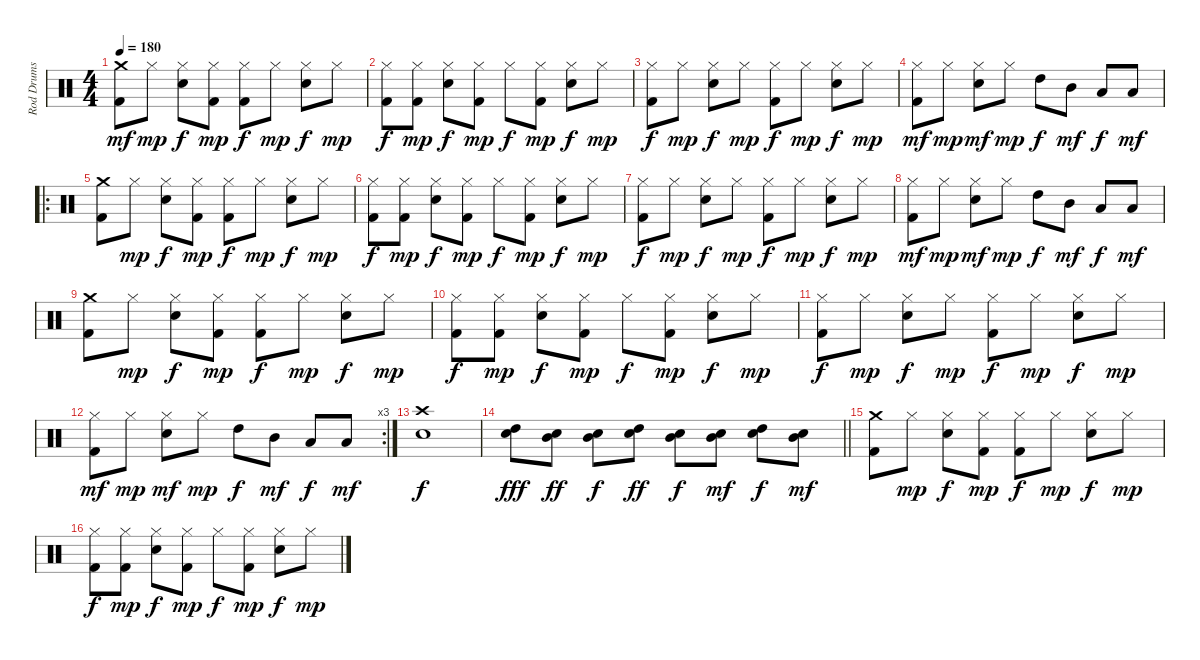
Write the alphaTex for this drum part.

\track ("Rod Drums" "Rod Drums") {instrument percussion}
\staff {score}
\articulation defaults
\ts (4 4)
\tempo 180
\clef neutral
\ks c
("Crash medium (hit)" "Kick (hit) 2").8{dy mf} "Hi-Hat (closed)".8{dy mp} ("Hi-Hat (closed)" "Snare (hit) 2").8{dy f} ("Hi-Hat (closed)" "Kick (hit) 2").8{dy mp} ("Hi-Hat (closed)" "Kick (hit) 2").8{dy f} "Hi-Hat (closed)".8{dy mp} ("Hi-Hat (closed)" "Snare (hit) 2").8{dy f} "Hi-Hat (closed)".8{dy mp} |
("Hi-Hat (closed)" "Kick (hit) 2").8{dy f} ("Hi-Hat (closed)" "Kick (hit) 2").8{dy mp} ("Hi-Hat (closed)" "Snare (hit) 2").8{dy f} ("Hi-Hat (closed)" "Kick (hit) 2").8{dy mp} "Hi-Hat (closed)".8{dy f} ("Hi-Hat (closed)" "Kick (hit) 2").8{dy mp} ("Hi-Hat (closed)" "Snare (hit) 2").8{dy f} "Hi-Hat (closed)".8{dy mp} |
("Hi-Hat (closed)" "Kick (hit) 2").8{dy f} "Hi-Hat (closed)".8{dy mp} ("Hi-Hat (closed)" "Snare (hit) 2").8{dy f} "Hi-Hat (closed)".8{dy mp} ("Hi-Hat (closed)" "Kick (hit) 2").8{dy f} "Hi-Hat (closed)".8{dy mp} ("Hi-Hat (closed)" "Snare (hit) 2").8{dy f} "Hi-Hat (closed)".8{dy mp} |
("Hi-Hat (closed)" "Kick (hit) 2").8{dy mf} "Hi-Hat (closed)".8{dy mp} ("Hi-Hat (closed)" "Snare (hit) 2").8{dy mf} "Hi-Hat (closed)".8{dy mp} "High Tom (hit)".8{dy f} "Mid Tom (hit)".8{dy mf} "Low Tom (hit)".8{dy f} "Low Tom (hit)".8{dy mf} |
\ro
("Crash medium (hit)" "Kick (hit) 2").8 "Hi-Hat (closed)".8{dy mp} ("Hi-Hat (closed)" "Snare (hit) 2").8{dy f} ("Hi-Hat (closed)" "Kick (hit) 2").8{dy mp} ("Hi-Hat (closed)" "Kick (hit) 2").8{dy f} "Hi-Hat (closed)".8{dy mp} ("Hi-Hat (closed)" "Snare (hit) 2").8{dy f} "Hi-Hat (closed)".8{dy mp} |
("Hi-Hat (closed)" "Kick (hit) 2").8{dy f} ("Hi-Hat (closed)" "Kick (hit) 2").8{dy mp} ("Hi-Hat (closed)" "Snare (hit) 2").8{dy f} ("Hi-Hat (closed)" "Kick (hit) 2").8{dy mp} "Hi-Hat (closed)".8{dy f} ("Hi-Hat (closed)" "Kick (hit) 2").8{dy mp} ("Hi-Hat (closed)" "Snare (hit) 2").8{dy f} "Hi-Hat (closed)".8{dy mp} |
("Hi-Hat (closed)" "Kick (hit) 2").8{dy f} "Hi-Hat (closed)".8{dy mp} ("Hi-Hat (closed)" "Snare (hit) 2").8{dy f} "Hi-Hat (closed)".8{dy mp} ("Hi-Hat (closed)" "Kick (hit) 2").8{dy f} "Hi-Hat (closed)".8{dy mp} ("Hi-Hat (closed)" "Snare (hit) 2").8{dy f} "Hi-Hat (closed)".8{dy mp} |
("Hi-Hat (closed)" "Kick (hit) 2").8{dy mf} "Hi-Hat (closed)".8{dy mp} ("Hi-Hat (closed)" "Snare (hit) 2").8{dy mf} "Hi-Hat (closed)".8{dy mp} "High Tom (hit)".8{dy f} "Mid Tom (hit)".8{dy mf} "Low Tom (hit)".8{dy f} "Low Tom (hit)".8{dy mf} |
("Crash medium (hit)" "Kick (hit) 2").8 "Hi-Hat (closed)".8{dy mp} ("Hi-Hat (closed)" "Snare (hit) 2").8{dy f} ("Hi-Hat (closed)" "Kick (hit) 2").8{dy mp} ("Hi-Hat (closed)" "Kick (hit) 2").8{dy f} "Hi-Hat (closed)".8{dy mp} ("Hi-Hat (closed)" "Snare (hit) 2").8{dy f} "Hi-Hat (closed)".8{dy mp} |
("Hi-Hat (closed)" "Kick (hit) 2").8{dy f} ("Hi-Hat (closed)" "Kick (hit) 2").8{dy mp} ("Hi-Hat (closed)" "Snare (hit) 2").8{dy f} ("Hi-Hat (closed)" "Kick (hit) 2").8{dy mp} "Hi-Hat (closed)".8{dy f} ("Hi-Hat (closed)" "Kick (hit) 2").8{dy mp} ("Hi-Hat (closed)" "Snare (hit) 2").8{dy f} "Hi-Hat (closed)".8{dy mp} |
("Hi-Hat (closed)" "Kick (hit) 2").8{dy f} "Hi-Hat (closed)".8{dy mp} ("Hi-Hat (closed)" "Snare (hit) 2").8{dy f} "Hi-Hat (closed)".8{dy mp} ("Hi-Hat (closed)" "Kick (hit) 2").8{dy f} "Hi-Hat (closed)".8{dy mp} ("Hi-Hat (closed)" "Snare (hit) 2").8{dy f} "Hi-Hat (closed)".8{dy mp} |
\rc 3
("Hi-Hat (closed)" "Kick (hit) 2").8{dy mf} "Hi-Hat (closed)".8{dy mp} ("Hi-Hat (closed)" "Snare (hit) 2").8{dy mf} "Hi-Hat (closed)".8{dy mp} "High Tom (hit)".8{dy f} "Mid Tom (hit)".8{dy mf} "Low Tom (hit)".8{dy f} "Low Tom (hit)".8{dy mf} |
("Crash high (hit)" "Snare (hit) 2").1{dy f} |
\barLineRight lightlight
("Snare (hit) 2" "High Tom (hit)").8{dy fff} ("Snare (hit) 2" "Mid Tom (hit)").8{dy ff} ("Snare (hit) 2" "Mid Tom (hit)").8{dy f} ("Snare (hit) 2" "High Tom (hit)").8{dy ff} ("Snare (hit) 2" "Mid Tom (hit)").8{dy f} ("Snare (hit) 2" "Mid Tom (hit)").8{dy mf} ("Snare (hit) 2" "High Tom (hit)").8{dy f} ("Snare (hit) 2" "Mid Tom (hit)").8{dy mf} |
("Crash medium (hit)" "Kick (hit) 2").8 "Hi-Hat (closed)".8{dy mp} ("Hi-Hat (closed)" "Snare (hit) 2").8{dy f} ("Hi-Hat (closed)" "Kick (hit) 2").8{dy mp} ("Hi-Hat (closed)" "Kick (hit) 2").8{dy f} "Hi-Hat (closed)".8{dy mp} ("Hi-Hat (closed)" "Snare (hit) 2").8{dy f} "Hi-Hat (closed)".8{dy mp} |
("Hi-Hat (closed)" "Kick (hit) 2").8{dy f} ("Hi-Hat (closed)" "Kick (hit) 2").8{dy mp} ("Hi-Hat (closed)" "Snare (hit) 2").8{dy f} ("Hi-Hat (closed)" "Kick (hit) 2").8{dy mp} "Hi-Hat (closed)".8{dy f} ("Hi-Hat (closed)" "Kick (hit) 2").8{dy mp} ("Hi-Hat (closed)" "Snare (hit) 2").8{dy f} "Hi-Hat (closed)".8{dy mp}
